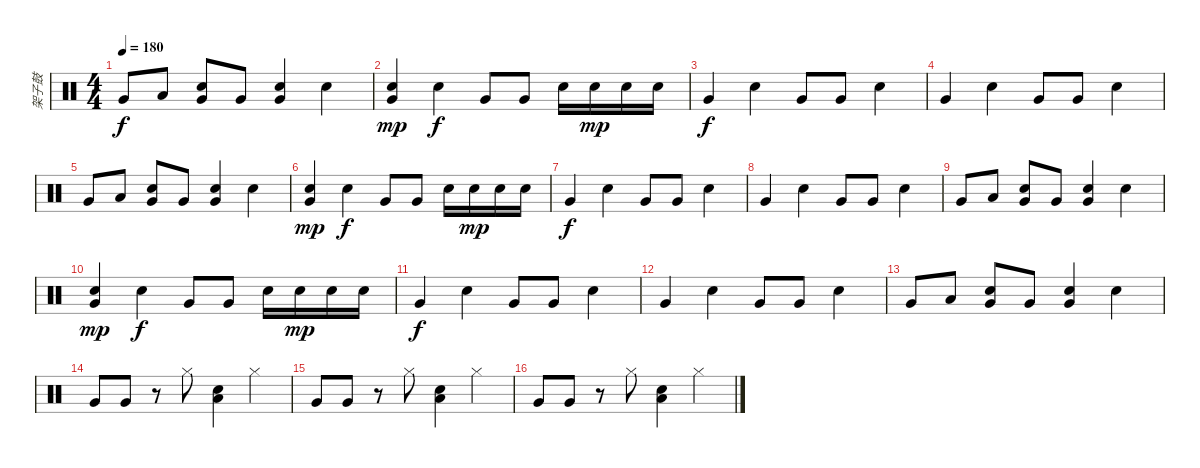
\track ("架子鼓" "架子鼓") {instrument percussion}
\staff {score}
\articulation defaults
\ts (4 4)
\tempo 180
\clef neutral
\ks c "Very Low Tom (hit)".8{dy f} "Low Tom (hit)".8
("Electric Snare (hit)" "Very Low Tom (hit)").8 "Very Low Tom (hit)".8 ("Electric Snare (hit)" "Very Low Tom (hit)").4 "Electric Snare (hit)".4 |
("Electric Snare (hit)" "Very Low Tom (hit)").4{dy mp} "Electric Snare (hit)".4{dy f} "Very Low Tom (hit)".8 "Very Low Tom (hit)".8 "Electric Snare (hit)".16 "Electric Snare (hit)".16{dy mp} "Electric Snare (hit)".16 "Electric Snare (hit)".16 |
"Very Low Tom (hit)".4{dy f} "Electric Snare (hit)".4 "Very Low Tom (hit)".8 "Very Low Tom (hit)".8 "Electric Snare (hit)".4 |
"Very Low Tom (hit)".4 "Electric Snare (hit)".4 "Very Low Tom (hit)".8 "Very Low Tom (hit)".8 "Electric Snare (hit)".4 |
"Very Low Tom (hit)".8 "Low Tom (hit)".8 ("Electric Snare (hit)" "Very Low Tom (hit)").8 "Very Low Tom (hit)".8 ("Electric Snare (hit)" "Very Low Tom (hit)").4 "Electric Snare (hit)".4 |
("Electric Snare (hit)" "Very Low Tom (hit)").4{dy mp} "Electric Snare (hit)".4{dy f} "Very Low Tom (hit)".8 "Very Low Tom (hit)".8 "Electric Snare (hit)".16 "Electric Snare (hit)".16{dy mp} "Electric Snare (hit)".16 "Electric Snare (hit)".16 |
"Very Low Tom (hit)".4{dy f} "Electric Snare (hit)".4 "Very Low Tom (hit)".8 "Very Low Tom (hit)".8 "Electric Snare (hit)".4 |
"Very Low Tom (hit)".4 "Electric Snare (hit)".4 "Very Low Tom (hit)".8 "Very Low Tom (hit)".8 "Electric Snare (hit)".4 |
"Very Low Tom (hit)".8 "Low Tom (hit)".8 ("Electric Snare (hit)" "Very Low Tom (hit)").8 "Very Low Tom (hit)".8 ("Electric Snare (hit)" "Very Low Tom (hit)").4 "Electric Snare (hit)".4 |
("Electric Snare (hit)" "Very Low Tom (hit)").4{dy mp} "Electric Snare (hit)".4{dy f} "Very Low Tom (hit)".8 "Very Low Tom (hit)".8 "Electric Snare (hit)".16 "Electric Snare (hit)".16{dy mp} "Electric Snare (hit)".16 "Electric Snare (hit)".16 |
"Very Low Tom (hit)".4{dy f} "Electric Snare (hit)".4 "Very Low Tom (hit)".8 "Very Low Tom (hit)".8 "Electric Snare (hit)".4 |
"Very Low Tom (hit)".4 "Electric Snare (hit)".4 "Very Low Tom (hit)".8 "Very Low Tom (hit)".8 "Electric Snare (hit)".4 |
"Very Low Tom (hit)".8 "Low Tom (hit)".8 ("Electric Snare (hit)" "Very Low Tom (hit)").8 "Very Low Tom (hit)".8 ("Electric Snare (hit)" "Very Low Tom (hit)").4 "Electric Snare (hit)".4 |
"Very Low Tom (hit)".8 "Very Low Tom (hit)".8 r.8 "Hi-Hat (closed)".8 ("Electric Snare (hit)" "Low Tom (hit)").4 "Hi-Hat (closed)".4 |
"Very Low Tom (hit)".8 "Very Low Tom (hit)".8 r.8 "Hi-Hat (closed)".8 ("Electric Snare (hit)" "Low Tom (hit)").4 "Hi-Hat (closed)".4 |
"Very Low Tom (hit)".8 "Very Low Tom (hit)".8 r.8 "Hi-Hat (closed)".8 ("Electric Snare (hit)" "Low Tom (hit)").4 "Hi-Hat (closed)".4
